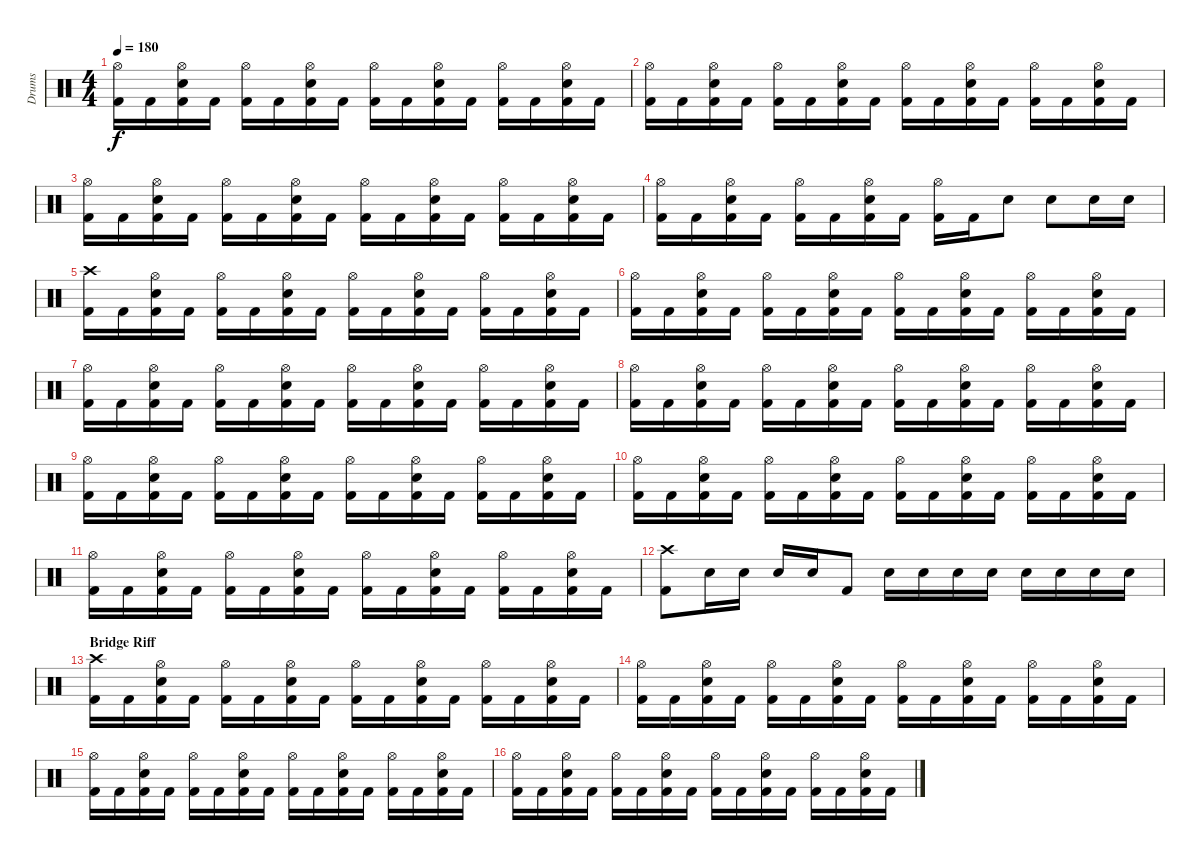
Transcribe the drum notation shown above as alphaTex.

\track ("Drums" "Drums") {instrument percussion}
\staff {score}
\articulation defaults
\ts (4 4)
\tempo 180
\clef neutral
\ks c
("Hi-Hat (open)" "Kick (hit) 2").16{dy f} "Kick (hit) 2".16 ("Hi-Hat (open)" "Snare (hit) 2" "Kick (hit) 2").16 "Kick (hit) 2".16 ("Hi-Hat (open)" "Kick (hit) 2").16 "Kick (hit) 2".16 ("Hi-Hat (open)" "Snare (hit) 2" "Kick (hit) 2").16 "Kick (hit) 2".16 ("Hi-Hat (open)" "Kick (hit) 2").16 "Kick (hit) 2".16 ("Hi-Hat (open)" "Snare (hit) 2" "Kick (hit) 2").16 "Kick (hit) 2".16 ("Hi-Hat (open)" "Kick (hit) 2").16 "Kick (hit) 2".16 ("Hi-Hat (open)" "Snare (hit) 2" "Kick (hit) 2").16 "Kick (hit) 2".16 |
("Hi-Hat (open)" "Kick (hit) 2").16 "Kick (hit) 2".16 ("Hi-Hat (open)" "Snare (hit) 2" "Kick (hit) 2").16 "Kick (hit) 2".16 ("Hi-Hat (open)" "Kick (hit) 2").16 "Kick (hit) 2".16 ("Hi-Hat (open)" "Snare (hit) 2" "Kick (hit) 2").16 "Kick (hit) 2".16 ("Hi-Hat (open)" "Kick (hit) 2").16 "Kick (hit) 2".16 ("Hi-Hat (open)" "Snare (hit) 2" "Kick (hit) 2").16 "Kick (hit) 2".16 ("Hi-Hat (open)" "Kick (hit) 2").16 "Kick (hit) 2".16 ("Hi-Hat (open)" "Snare (hit) 2" "Kick (hit) 2").16 "Kick (hit) 2".16 |
("Hi-Hat (open)" "Kick (hit) 2").16 "Kick (hit) 2".16 ("Hi-Hat (open)" "Snare (hit) 2" "Kick (hit) 2").16 "Kick (hit) 2".16 ("Hi-Hat (open)" "Kick (hit) 2").16 "Kick (hit) 2".16 ("Hi-Hat (open)" "Snare (hit) 2" "Kick (hit) 2").16 "Kick (hit) 2".16 ("Hi-Hat (open)" "Kick (hit) 2").16 "Kick (hit) 2".16 ("Hi-Hat (open)" "Snare (hit) 2" "Kick (hit) 2").16 "Kick (hit) 2".16 ("Hi-Hat (open)" "Kick (hit) 2").16 "Kick (hit) 2".16 ("Hi-Hat (open)" "Snare (hit) 2" "Kick (hit) 2").16 "Kick (hit) 2".16 |
("Hi-Hat (open)" "Kick (hit) 2").16 "Kick (hit) 2".16 ("Hi-Hat (open)" "Snare (hit) 2" "Kick (hit) 2").16 "Kick (hit) 2".16 ("Hi-Hat (open)" "Kick (hit) 2").16 "Kick (hit) 2".16 ("Hi-Hat (open)" "Snare (hit) 2" "Kick (hit) 2").16 "Kick (hit) 2".16 ("Hi-Hat (open)" "Kick (hit) 2").16 "Kick (hit) 2".16 "Snare (hit) 2".8 "Snare (hit) 2".8 "Snare (hit) 2".16 "Snare (hit) 2".16 |
("Crash high (hit)" "Kick (hit) 2").16 "Kick (hit) 2".16 ("Hi-Hat (open)" "Snare (hit) 2" "Kick (hit) 2").16 "Kick (hit) 2".16 ("Hi-Hat (open)" "Kick (hit) 2").16 "Kick (hit) 2".16 ("Hi-Hat (open)" "Snare (hit) 2" "Kick (hit) 2").16 "Kick (hit) 2".16 ("Hi-Hat (open)" "Kick (hit) 2").16 "Kick (hit) 2".16 ("Hi-Hat (open)" "Snare (hit) 2" "Kick (hit) 2").16 "Kick (hit) 2".16 ("Hi-Hat (open)" "Kick (hit) 2").16 "Kick (hit) 2".16 ("Hi-Hat (open)" "Snare (hit) 2" "Kick (hit) 2").16 "Kick (hit) 2".16 |
("Hi-Hat (open)" "Kick (hit) 2").16 "Kick (hit) 2".16 ("Hi-Hat (open)" "Snare (hit) 2" "Kick (hit) 2").16 "Kick (hit) 2".16 ("Hi-Hat (open)" "Kick (hit) 2").16 "Kick (hit) 2".16 ("Hi-Hat (open)" "Snare (hit) 2" "Kick (hit) 2").16 "Kick (hit) 2".16 ("Hi-Hat (open)" "Kick (hit) 2").16 "Kick (hit) 2".16 ("Hi-Hat (open)" "Snare (hit) 2" "Kick (hit) 2").16 "Kick (hit) 2".16 ("Hi-Hat (open)" "Kick (hit) 2").16 "Kick (hit) 2".16 ("Hi-Hat (open)" "Snare (hit) 2" "Kick (hit) 2").16 "Kick (hit) 2".16 |
("Hi-Hat (open)" "Kick (hit) 2").16 "Kick (hit) 2".16 ("Hi-Hat (open)" "Snare (hit) 2" "Kick (hit) 2").16 "Kick (hit) 2".16 ("Hi-Hat (open)" "Kick (hit) 2").16 "Kick (hit) 2".16 ("Hi-Hat (open)" "Snare (hit) 2" "Kick (hit) 2").16 "Kick (hit) 2".16 ("Hi-Hat (open)" "Kick (hit) 2").16 "Kick (hit) 2".16 ("Hi-Hat (open)" "Snare (hit) 2" "Kick (hit) 2").16 "Kick (hit) 2".16 ("Hi-Hat (open)" "Kick (hit) 2").16 "Kick (hit) 2".16 ("Hi-Hat (open)" "Snare (hit) 2" "Kick (hit) 2").16 "Kick (hit) 2".16 |
("Hi-Hat (open)" "Kick (hit) 2").16 "Kick (hit) 2".16 ("Hi-Hat (open)" "Snare (hit) 2" "Kick (hit) 2").16 "Kick (hit) 2".16 ("Hi-Hat (open)" "Kick (hit) 2").16 "Kick (hit) 2".16 ("Hi-Hat (open)" "Snare (hit) 2" "Kick (hit) 2").16 "Kick (hit) 2".16 ("Hi-Hat (open)" "Kick (hit) 2").16 "Kick (hit) 2".16 ("Hi-Hat (open)" "Snare (hit) 2" "Kick (hit) 2").16 "Kick (hit) 2".16 ("Hi-Hat (open)" "Kick (hit) 2").16 "Kick (hit) 2".16 ("Hi-Hat (open)" "Snare (hit) 2" "Kick (hit) 2").16 "Kick (hit) 2".16 |
("Hi-Hat (open)" "Kick (hit) 2").16 "Kick (hit) 2".16 ("Hi-Hat (open)" "Snare (hit) 2" "Kick (hit) 2").16 "Kick (hit) 2".16 ("Hi-Hat (open)" "Kick (hit) 2").16 "Kick (hit) 2".16 ("Hi-Hat (open)" "Snare (hit) 2" "Kick (hit) 2").16 "Kick (hit) 2".16 ("Hi-Hat (open)" "Kick (hit) 2").16 "Kick (hit) 2".16 ("Hi-Hat (open)" "Snare (hit) 2" "Kick (hit) 2").16 "Kick (hit) 2".16 ("Hi-Hat (open)" "Kick (hit) 2").16 "Kick (hit) 2".16 ("Hi-Hat (open)" "Snare (hit) 2" "Kick (hit) 2").16 "Kick (hit) 2".16 |
("Hi-Hat (open)" "Kick (hit) 2").16 "Kick (hit) 2".16 ("Hi-Hat (open)" "Snare (hit) 2" "Kick (hit) 2").16 "Kick (hit) 2".16 ("Hi-Hat (open)" "Kick (hit) 2").16 "Kick (hit) 2".16 ("Hi-Hat (open)" "Snare (hit) 2" "Kick (hit) 2").16 "Kick (hit) 2".16 ("Hi-Hat (open)" "Kick (hit) 2").16 "Kick (hit) 2".16 ("Hi-Hat (open)" "Snare (hit) 2" "Kick (hit) 2").16 "Kick (hit) 2".16 ("Hi-Hat (open)" "Kick (hit) 2").16 "Kick (hit) 2".16 ("Hi-Hat (open)" "Snare (hit) 2" "Kick (hit) 2").16 "Kick (hit) 2".16 |
("Hi-Hat (open)" "Kick (hit) 2").16 "Kick (hit) 2".16 ("Hi-Hat (open)" "Snare (hit) 2" "Kick (hit) 2").16 "Kick (hit) 2".16 ("Hi-Hat (open)" "Kick (hit) 2").16 "Kick (hit) 2".16 ("Hi-Hat (open)" "Snare (hit) 2" "Kick (hit) 2").16 "Kick (hit) 2".16 ("Hi-Hat (open)" "Kick (hit) 2").16 "Kick (hit) 2".16 ("Hi-Hat (open)" "Snare (hit) 2" "Kick (hit) 2").16 "Kick (hit) 2".16 ("Hi-Hat (open)" "Kick (hit) 2").16 "Kick (hit) 2".16 ("Hi-Hat (open)" "Snare (hit) 2" "Kick (hit) 2").16 "Kick (hit) 2".16 |
("Crash high (hit)" "Kick (hit) 2").8 "Snare (hit) 2".16 "Snare (hit) 2".16 "Snare (hit) 2".16 "Snare (hit) 2".16 "Kick (hit) 2".8 "Snare (hit) 2".16 "Snare (hit) 2".16 "Snare (hit) 2".16 "Snare (hit) 2".16 "Snare (hit) 2".16 "Snare (hit) 2".16 "Snare (hit) 2".16 "Snare (hit) 2".16 |
\section ("" "Bridge Riff")
("Crash high (hit)" "Kick (hit) 2").16 "Kick (hit) 2".16 ("Hi-Hat (open)" "Snare (hit) 2" "Kick (hit) 2").16 "Kick (hit) 2".16 ("Hi-Hat (open)" "Kick (hit) 2").16 "Kick (hit) 2".16 ("Hi-Hat (open)" "Snare (hit) 2" "Kick (hit) 2").16 "Kick (hit) 2".16 ("Hi-Hat (open)" "Kick (hit) 2").16 "Kick (hit) 2".16 ("Hi-Hat (open)" "Snare (hit) 2" "Kick (hit) 2").16 "Kick (hit) 2".16 ("Hi-Hat (open)" "Kick (hit) 2").16 "Kick (hit) 2".16 ("Hi-Hat (open)" "Snare (hit) 2" "Kick (hit) 2").16 "Kick (hit) 2".16 |
("Hi-Hat (open)" "Kick (hit) 2").16 "Kick (hit) 2".16 ("Hi-Hat (open)" "Snare (hit) 2" "Kick (hit) 2").16 "Kick (hit) 2".16 ("Hi-Hat (open)" "Kick (hit) 2").16 "Kick (hit) 2".16 ("Hi-Hat (open)" "Snare (hit) 2" "Kick (hit) 2").16 "Kick (hit) 2".16 ("Hi-Hat (open)" "Kick (hit) 2").16 "Kick (hit) 2".16 ("Hi-Hat (open)" "Snare (hit) 2" "Kick (hit) 2").16 "Kick (hit) 2".16 ("Hi-Hat (open)" "Kick (hit) 2").16 "Kick (hit) 2".16 ("Hi-Hat (open)" "Snare (hit) 2" "Kick (hit) 2").16 "Kick (hit) 2".16 |
("Hi-Hat (open)" "Kick (hit) 2").16 "Kick (hit) 2".16 ("Hi-Hat (open)" "Snare (hit) 2" "Kick (hit) 2").16 "Kick (hit) 2".16 ("Hi-Hat (open)" "Kick (hit) 2").16 "Kick (hit) 2".16 ("Hi-Hat (open)" "Snare (hit) 2" "Kick (hit) 2").16 "Kick (hit) 2".16 ("Hi-Hat (open)" "Kick (hit) 2").16 "Kick (hit) 2".16 ("Hi-Hat (open)" "Snare (hit) 2" "Kick (hit) 2").16 "Kick (hit) 2".16 ("Hi-Hat (open)" "Kick (hit) 2").16 "Kick (hit) 2".16 ("Hi-Hat (open)" "Snare (hit) 2" "Kick (hit) 2").16 "Kick (hit) 2".16 |
("Hi-Hat (open)" "Kick (hit) 2").16 "Kick (hit) 2".16 ("Hi-Hat (open)" "Snare (hit) 2" "Kick (hit) 2").16 "Kick (hit) 2".16 ("Hi-Hat (open)" "Kick (hit) 2").16 "Kick (hit) 2".16 ("Hi-Hat (open)" "Snare (hit) 2" "Kick (hit) 2").16 "Kick (hit) 2".16 ("Hi-Hat (open)" "Kick (hit) 2").16 "Kick (hit) 2".16 ("Hi-Hat (open)" "Snare (hit) 2" "Kick (hit) 2").16 "Kick (hit) 2".16 ("Hi-Hat (open)" "Kick (hit) 2").16 "Kick (hit) 2".16 ("Hi-Hat (open)" "Snare (hit) 2" "Kick (hit) 2").16 "Kick (hit) 2".16
